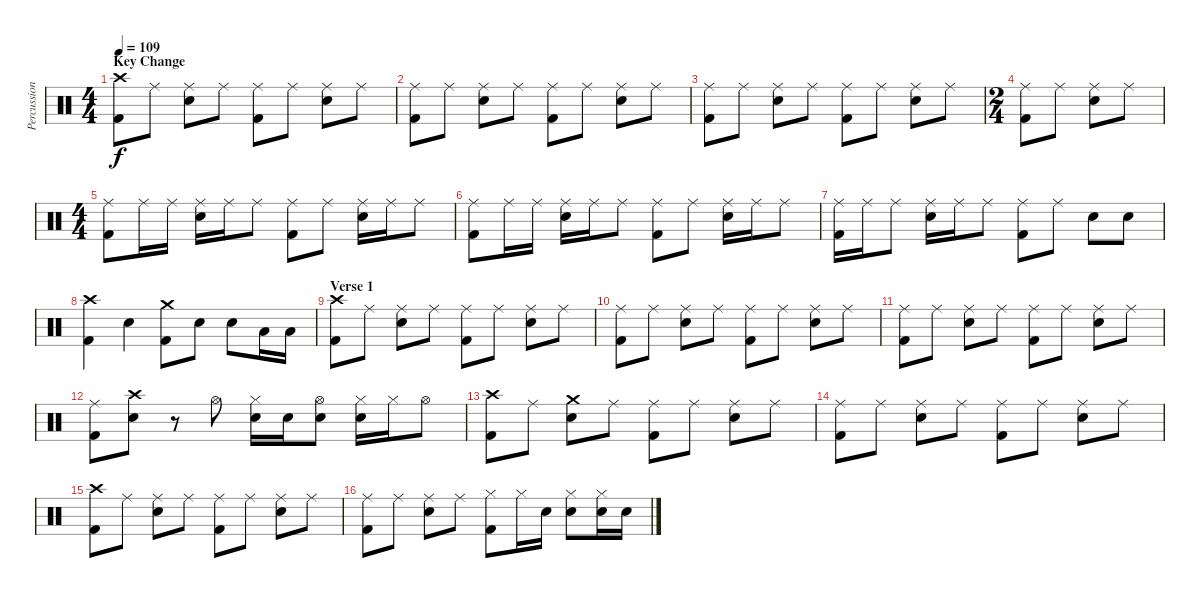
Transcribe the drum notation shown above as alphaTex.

\track ("Percussion" "Percussion") {instrument percussion}
\staff {score}
\articulation defaults
\ts (4 4)
\section ("" "Key Change")
\tempo 109
\clef neutral
\ks c
("Crash high (hit)" "Kick (hit) 2").8{dy f} "Ride (middle)".8 ("Ride (middle)" "Electric Snare (hit)").8 "Ride (middle)".8 ("Ride (middle)" "Kick (hit) 2").8 "Ride (middle)".8 ("Ride (middle)" "Electric Snare (hit)").8 "Ride (middle)".8 |
("Ride (middle)" "Kick (hit) 2").8 "Ride (middle)".8 ("Ride (middle)" "Electric Snare (hit)").8 "Ride (middle)".8 ("Ride (middle)" "Kick (hit) 2").8 "Ride (middle)".8 ("Ride (middle)" "Electric Snare (hit)").8 "Ride (middle)".8 |
("Ride (middle)" "Kick (hit) 2").8 "Ride (middle)".8 ("Ride (middle)" "Electric Snare (hit)").8 "Ride (middle)".8 ("Ride (middle)" "Kick (hit) 2").8 "Ride (middle)".8 ("Ride (middle)" "Electric Snare (hit)").8 "Ride (middle)".8 |
\ts (2 4)
("Ride (middle)" "Kick (hit) 2").8 "Ride (middle)".8 ("Ride (middle)" "Electric Snare (hit)").8 "Ride (middle)".8 |
\ts (4 4)
("Ride (middle)" "Kick (hit) 2").8 "Ride (middle)".16 "Ride (middle)".16 ("Ride (middle)" "Electric Snare (hit)").16 "Ride (middle)".16 "Ride (middle)".8 ("Ride (middle)" "Kick (hit) 2").8 "Ride (middle)".8 ("Ride (middle)" "Electric Snare (hit)").16 "Ride (middle)".16 "Ride (middle)".8 |
("Ride (middle)" "Kick (hit) 2").8 "Ride (middle)".16 "Ride (middle)".16 ("Ride (middle)" "Electric Snare (hit)").16 "Ride (middle)".16 "Ride (middle)".8 ("Ride (middle)" "Kick (hit) 2").8 "Ride (middle)".8 ("Ride (middle)" "Electric Snare (hit)").16 "Ride (middle)".16 "Ride (middle)".8 |
("Ride (middle)" "Kick (hit) 2").16 "Ride (middle)".16 "Ride (middle)".8 ("Ride (middle)" "Electric Snare (hit)").16 "Ride (middle)".16 "Ride (middle)".8 ("Ride (middle)" "Kick (hit) 2").8 "Ride (middle)".8 "Electric Snare (hit)".8 "Electric Snare (hit)".8 |
("Crash high (hit)" "Kick (hit) 2").4 "Electric Snare (hit)".4 ("Crash medium (hit)" "Kick (hit) 2").8 "Electric Snare (hit)".8 "Electric Snare (hit)".8 "Low Tom (hit)".16 "Low Tom (hit)".16 |
\section ("" "Verse 1")
("Crash high (hit)" "Kick (hit) 2").8 "Ride (middle)".8 ("Ride (middle)" "Electric Snare (hit)").8 "Ride (middle)".8 ("Ride (middle)" "Kick (hit) 2").8 "Ride (middle)".8 ("Ride (middle)" "Electric Snare (hit)").8 "Ride (middle)".8 |
("Ride (middle)" "Kick (hit) 2").8 "Ride (middle)".8 ("Ride (middle)" "Electric Snare (hit)").8 "Ride (middle)".8 ("Ride (middle)" "Kick (hit) 2").8 "Ride (middle)".8 ("Ride (middle)" "Electric Snare (hit)").8 "Ride (middle)".8 |
("Ride (middle)" "Kick (hit) 2").8 "Ride (middle)".8 ("Ride (middle)" "Electric Snare (hit)").8 "Ride (middle)".8 ("Ride (middle)" "Kick (hit) 2").8 "Ride (middle)".8 ("Ride (middle)" "Electric Snare (hit)").8 "Ride (middle)".8 |
("Ride (middle)" "Kick (hit) 2").8 ("Crash high (hit)" "Electric Snare (hit)").8 r.8 "Hi-Hat (open)".8 ("Hi-Hat (closed)" "Electric Snare (hit)").16 "Electric Snare (hit)".16 ("Hi-Hat (open)" "Electric Snare (hit)").8 ("Hi-Hat (closed)" "Electric Snare (hit)").16 "Hi-Hat (closed)".16 "Hi-Hat (open)".8 |
("Crash high (hit)" "Kick (hit) 2").8 "Ride (middle)".8 ("Crash medium (hit)" "Electric Snare (hit)").8 "Ride (middle)".8 ("Ride (middle)" "Kick (hit) 2").8 "Ride (middle)".8 ("Ride (middle)" "Electric Snare (hit)").8 "Ride (middle)".8 |
("Ride (middle)" "Kick (hit) 2").8 "Ride (middle)".8 ("Ride (middle)" "Electric Snare (hit)").8 "Ride (middle)".8 ("Ride (middle)" "Kick (hit) 2").8 "Ride (middle)".8 ("Ride (middle)" "Electric Snare (hit)").8 "Ride (middle)".8 |
("Crash high (hit)" "Kick (hit) 2").8 "Ride (middle)".8 ("Ride (middle)" "Electric Snare (hit)").8 "Ride (middle)".8 ("Ride (middle)" "Kick (hit) 2").8 "Ride (middle)".8 ("Ride (middle)" "Electric Snare (hit)").8 "Ride (middle)".8 |
("Ride (middle)" "Kick (hit) 2").8 "Ride (middle)".8 ("Ride (middle)" "Electric Snare (hit)").8 "Ride (middle)".8 ("Hi-Hat (closed)" "Kick (hit) 2").8 "Hi-Hat (closed)".16 "Electric Snare (hit)".16 ("Hi-Hat (closed)" "Electric Snare (hit)").8 ("Hi-Hat (closed)" "Electric Snare (hit)").16 "Electric Snare (hit)".16
